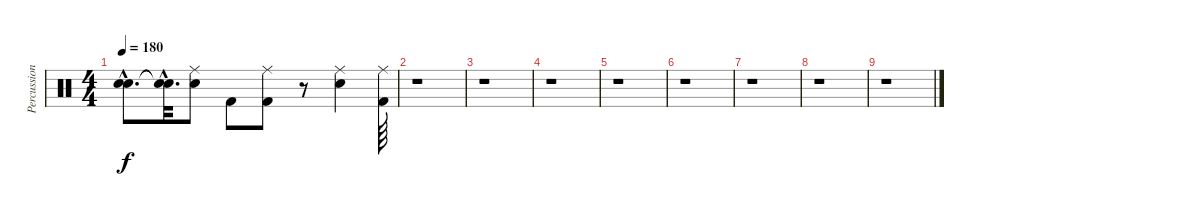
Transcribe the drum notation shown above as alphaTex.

\track ("Percussion" "Percussion") {instrument percussion}
\staff {score}
\articulation defaults
\ts (4 4)
\tempo 180
\clef neutral
\ks c
("Snare (hit)"{hac t} "Snare (hit)"{hac t}).8{d dy f} ("Snare (hit)"{hac t} "Snare (hit)"{hac t}).32{d} ("Snare (hit) 2" "Ride (middle)").8 "Kick (hit) 2".8 ("Kick (hit) 2" "Ride (middle)").8 r.8 ("Ride (middle)" "Snare (hit) 2").4 ("Kick (hit) 2" "Ride (middle)").64 |
r.1 |
r.1 |
r.1 |
r.1 |
r.1 |
r.1 |
r.1 |
r.1
